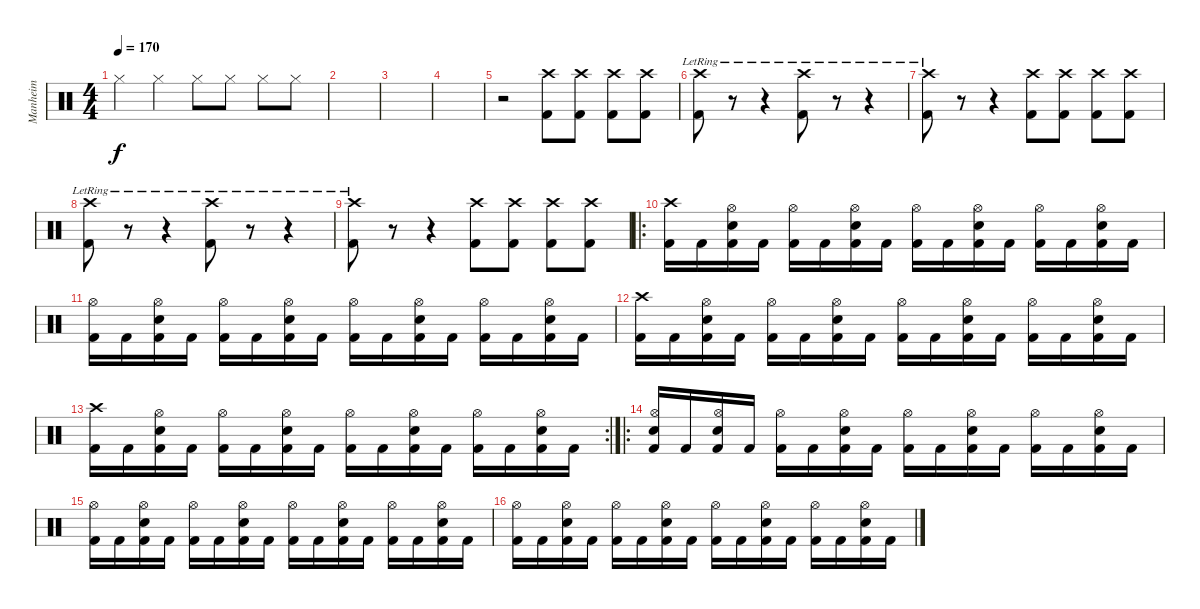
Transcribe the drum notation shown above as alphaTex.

\track ("Manheim" "Manheim") {instrument percussion}
\staff {score}
\articulation defaults
\ts (4 4)
\tempo 170
\clef neutral
\ks c "Hi-Hat (closed)".4{dy f} "Hi-Hat (closed)".4 "Hi-Hat (closed)".8 "Hi-Hat (closed)".8 "Hi-Hat (closed)".8 "Hi-Hat (closed)".8
|
|
|
|
r.2 ("Crash high (hit)" "Kick (hit) 2").8 ("Crash high (hit)" "Kick (hit) 2").8 ("Crash high (hit)" "Kick (hit) 2").8 ("Crash high (hit)" "Kick (hit) 2").8 |
("Crash high (hit)"{lr} "Kick (hit) 2").8 r.8 r.4 ("Crash high (hit)"{lr} "Kick (hit) 2").8 r.8 r.4 |
("Crash high (hit)"{lr} "Kick (hit) 2").8 r.8 r.4 ("Crash high (hit)" "Kick (hit) 2").8 ("Crash high (hit)" "Kick (hit) 2").8 ("Crash high (hit)" "Kick (hit) 2").8 ("Crash high (hit)" "Kick (hit) 2").8 |
("Crash high (hit)"{lr} "Kick (hit) 2").8 r.8 r.4 ("Crash high (hit)"{lr} "Kick (hit) 2").8 r.8 r.4 |
("Crash high (hit)"{lr} "Kick (hit) 2").8 r.8 r.4 ("Crash high (hit)" "Kick (hit) 2").8 ("Crash high (hit)" "Kick (hit) 2").8 ("Crash high (hit)" "Kick (hit) 2").8 ("Crash high (hit)" "Kick (hit) 2").8 |
\ro
("Crash high (hit)" "Kick (hit) 2").16 "Kick (hit) 2".16 ("Hi-Hat (open)" "Snare (hit) 2" "Kick (hit) 2").16 "Kick (hit) 2".16 ("Hi-Hat (open)" "Kick (hit) 2").16 "Kick (hit) 2".16 ("Hi-Hat (open)" "Snare (hit) 2" "Kick (hit) 2").16 "Kick (hit) 2".16 ("Hi-Hat (open)" "Kick (hit) 2").16 "Kick (hit) 2".16 ("Hi-Hat (open)" "Snare (hit) 2" "Kick (hit) 2").16 "Kick (hit) 2".16 ("Hi-Hat (open)" "Kick (hit) 2").16 "Kick (hit) 2".16 ("Hi-Hat (open)" "Snare (hit) 2" "Kick (hit) 2").16 "Kick (hit) 2".16 |
("Hi-Hat (open)" "Kick (hit) 2").16 "Kick (hit) 2".16 ("Hi-Hat (open)" "Snare (hit) 2" "Kick (hit) 2").16 "Kick (hit) 2".16 ("Hi-Hat (open)" "Kick (hit) 2").16 "Kick (hit) 2".16 ("Hi-Hat (open)" "Snare (hit) 2" "Kick (hit) 2").16 "Kick (hit) 2".16 ("Hi-Hat (open)" "Kick (hit) 2").16 "Kick (hit) 2".16 ("Hi-Hat (open)" "Snare (hit) 2" "Kick (hit) 2").16 "Kick (hit) 2".16 ("Hi-Hat (open)" "Kick (hit) 2").16 "Kick (hit) 2".16 ("Hi-Hat (open)" "Snare (hit) 2" "Kick (hit) 2").16 "Kick (hit) 2".16 |
("Crash high (hit)" "Kick (hit) 2").16 "Kick (hit) 2".16 ("Hi-Hat (open)" "Snare (hit) 2" "Kick (hit) 2").16 "Kick (hit) 2".16 ("Hi-Hat (open)" "Kick (hit) 2").16 "Kick (hit) 2".16 ("Hi-Hat (open)" "Snare (hit) 2" "Kick (hit) 2").16 "Kick (hit) 2".16 ("Hi-Hat (open)" "Kick (hit) 2").16 "Kick (hit) 2".16 ("Hi-Hat (open)" "Snare (hit) 2" "Kick (hit) 2").16 "Kick (hit) 2".16 ("Hi-Hat (open)" "Kick (hit) 2").16 "Kick (hit) 2".16 ("Hi-Hat (open)" "Snare (hit) 2" "Kick (hit) 2").16 "Kick (hit) 2".16 |
\rc 2
("Crash high (hit)" "Kick (hit) 2").16 "Kick (hit) 2".16 ("Hi-Hat (open)" "Snare (hit) 2" "Kick (hit) 2").16 "Kick (hit) 2".16 ("Hi-Hat (open)" "Kick (hit) 2").16 "Kick (hit) 2".16 ("Hi-Hat (open)" "Snare (hit) 2" "Kick (hit) 2").16 "Kick (hit) 2".16 ("Hi-Hat (open)" "Kick (hit) 2").16 "Kick (hit) 2".16 ("Hi-Hat (open)" "Snare (hit) 2" "Kick (hit) 2").16 "Kick (hit) 2".16 ("Hi-Hat (open)" "Kick (hit) 2").16 "Kick (hit) 2".16 ("Hi-Hat (open)" "Snare (hit) 2" "Kick (hit) 2").16 "Kick (hit) 2".16 |
\ro
("Hi-Hat (open)" "Snare (hit) 2" "Kick (hit) 2").16 "Kick (hit) 2".16 ("Hi-Hat (open)" "Snare (hit) 2" "Kick (hit) 2").16 "Kick (hit) 2".16 ("Hi-Hat (open)" "Kick (hit) 2").16 "Kick (hit) 2".16 ("Hi-Hat (open)" "Snare (hit) 2" "Kick (hit) 2").16 "Kick (hit) 2".16 ("Hi-Hat (open)" "Kick (hit) 2").16 "Kick (hit) 2".16 ("Hi-Hat (open)" "Snare (hit) 2" "Kick (hit) 2").16 "Kick (hit) 2".16 ("Hi-Hat (open)" "Kick (hit) 2").16 "Kick (hit) 2".16 ("Hi-Hat (open)" "Snare (hit) 2" "Kick (hit) 2").16 "Kick (hit) 2".16 |
("Hi-Hat (open)" "Kick (hit) 2").16 "Kick (hit) 2".16 ("Hi-Hat (open)" "Snare (hit) 2" "Kick (hit) 2").16 "Kick (hit) 2".16 ("Hi-Hat (open)" "Kick (hit) 2").16 "Kick (hit) 2".16 ("Hi-Hat (open)" "Snare (hit) 2" "Kick (hit) 2").16 "Kick (hit) 2".16 ("Hi-Hat (open)" "Kick (hit) 2").16 "Kick (hit) 2".16 ("Hi-Hat (open)" "Snare (hit) 2" "Kick (hit) 2").16 "Kick (hit) 2".16 ("Hi-Hat (open)" "Kick (hit) 2").16 "Kick (hit) 2".16 ("Hi-Hat (open)" "Snare (hit) 2" "Kick (hit) 2").16 "Kick (hit) 2".16 |
("Hi-Hat (open)" "Kick (hit) 2").16 "Kick (hit) 2".16 ("Hi-Hat (open)" "Snare (hit) 2" "Kick (hit) 2").16 "Kick (hit) 2".16 ("Hi-Hat (open)" "Kick (hit) 2").16 "Kick (hit) 2".16 ("Hi-Hat (open)" "Snare (hit) 2" "Kick (hit) 2").16 "Kick (hit) 2".16 ("Hi-Hat (open)" "Kick (hit) 2").16 "Kick (hit) 2".16 ("Hi-Hat (open)" "Snare (hit) 2" "Kick (hit) 2").16 "Kick (hit) 2".16 ("Hi-Hat (open)" "Kick (hit) 2").16 "Kick (hit) 2".16 ("Hi-Hat (open)" "Snare (hit) 2" "Kick (hit) 2").16 "Kick (hit) 2".16
